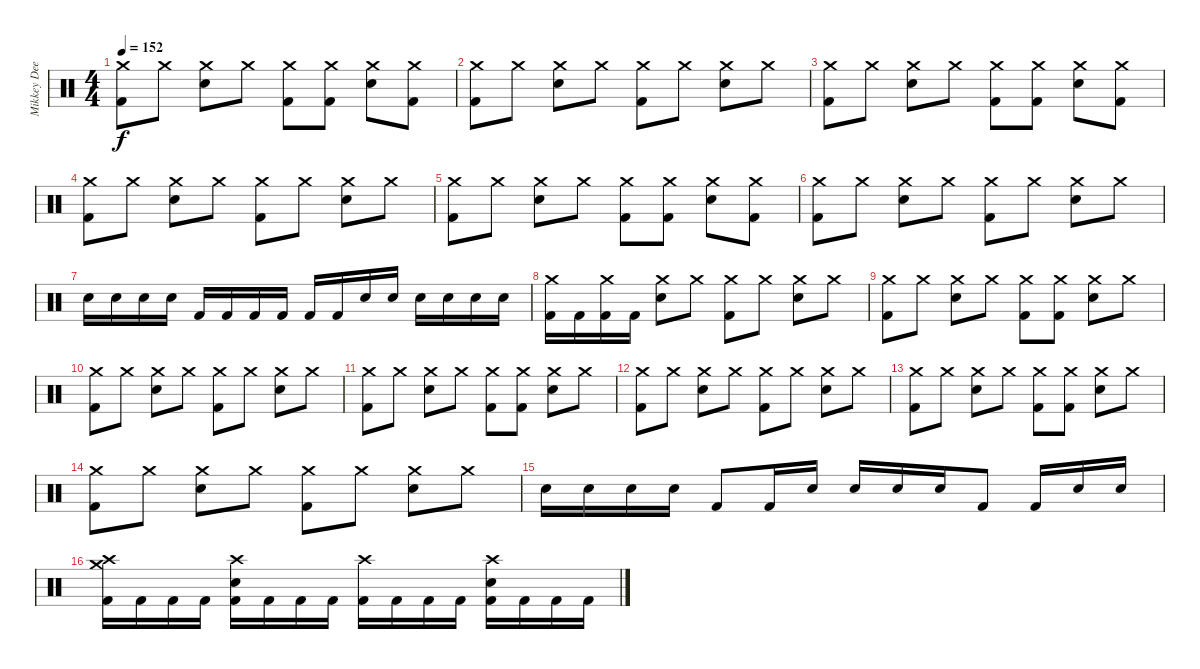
\track ("Mikkey Dee" "Mikkey Dee") {instrument percussion}
\staff {score}
\articulation defaults
\ts (4 4)
\tempo 152
\clef neutral
\ks c
("Crash medium (hit)" "Kick (hit) 2").8{dy f} "Crash medium (hit)".8 ("Crash medium (hit)" "Snare (hit) 2").8 "Crash medium (hit)".8 ("Crash medium (hit)" "Kick (hit) 2").8 ("Crash medium (hit)" "Kick (hit) 2").8 ("Crash medium (hit)" "Snare (hit) 2").8 ("Crash medium (hit)" "Kick (hit) 2").8 |
("Crash medium (hit)" "Kick (hit) 2").8 "Crash medium (hit)".8 ("Crash medium (hit)" "Snare (hit) 2").8 "Crash medium (hit)".8 ("Crash medium (hit)" "Kick (hit) 2").8 "Crash medium (hit)".8 ("Crash medium (hit)" "Snare (hit) 2").8 "Crash medium (hit)".8 |
("Crash medium (hit)" "Kick (hit) 2").8 "Crash medium (hit)".8 ("Crash medium (hit)" "Snare (hit) 2").8 "Crash medium (hit)".8 ("Crash medium (hit)" "Kick (hit) 2").8 ("Crash medium (hit)" "Kick (hit) 2").8 ("Crash medium (hit)" "Snare (hit) 2").8 ("Crash medium (hit)" "Kick (hit) 2").8 |
("Crash medium (hit)" "Kick (hit) 2").8 "Crash medium (hit)".8 ("Crash medium (hit)" "Snare (hit) 2").8 "Crash medium (hit)".8 ("Crash medium (hit)" "Kick (hit) 2").8 "Crash medium (hit)".8 ("Crash medium (hit)" "Snare (hit) 2").8 "Crash medium (hit)".8 |
("Crash medium (hit)" "Kick (hit) 2").8 "Crash medium (hit)".8 ("Crash medium (hit)" "Snare (hit) 2").8 "Crash medium (hit)".8 ("Crash medium (hit)" "Kick (hit) 2").8 ("Crash medium (hit)" "Kick (hit) 2").8 ("Crash medium (hit)" "Snare (hit) 2").8 ("Crash medium (hit)" "Kick (hit) 2").8 |
("Crash medium (hit)" "Kick (hit) 2").8 "Crash medium (hit)".8 ("Crash medium (hit)" "Snare (hit) 2").8 "Crash medium (hit)".8 ("Crash medium (hit)" "Kick (hit) 2").8 "Crash medium (hit)".8 ("Crash medium (hit)" "Snare (hit) 2").8 "Crash medium (hit)".8 |
"Snare (hit) 2".16 "Snare (hit) 2".16 "Snare (hit) 2".16 "Snare (hit) 2".16 "Kick (hit) 2".16 "Kick (hit) 2".16 "Kick (hit) 2".16 "Kick (hit) 2".16 "Kick (hit) 2".16 "Kick (hit) 2".16 "Snare (hit) 2".16 "Snare (hit) 2".16 "Snare (hit) 2".16 "Snare (hit) 2".16 "Snare (hit) 2".16 "Snare (hit) 2".16 |
("Crash medium (hit)" "Kick (hit) 2").16 "Kick (hit) 2".16 ("Crash medium (hit)" "Kick (hit) 2").16 "Kick (hit) 2".16 ("Crash medium (hit)" "Snare (hit) 2").8 "Crash medium (hit)".8 ("Crash medium (hit)" "Kick (hit) 2").8 "Crash medium (hit)".8 ("Crash medium (hit)" "Snare (hit) 2").8 "Crash medium (hit)".8 |
("Crash medium (hit)" "Kick (hit) 2").8 "Crash medium (hit)".8 ("Crash medium (hit)" "Snare (hit) 2").8 "Crash medium (hit)".8 ("Crash medium (hit)" "Kick (hit) 2").8 ("Crash medium (hit)" "Kick (hit) 2").8 ("Crash medium (hit)" "Snare (hit) 2").8 "Crash medium (hit)".8 |
("Crash medium (hit)" "Kick (hit) 2").8 "Crash medium (hit)".8 ("Crash medium (hit)" "Snare (hit) 2").8 "Crash medium (hit)".8 ("Crash medium (hit)" "Kick (hit) 2").8 "Crash medium (hit)".8 ("Crash medium (hit)" "Snare (hit) 2").8 "Crash medium (hit)".8 |
("Crash medium (hit)" "Kick (hit) 2").8 "Crash medium (hit)".8 ("Crash medium (hit)" "Snare (hit) 2").8 "Crash medium (hit)".8 ("Crash medium (hit)" "Kick (hit) 2").8 ("Crash medium (hit)" "Kick (hit) 2").8 ("Crash medium (hit)" "Snare (hit) 2").8 "Crash medium (hit)".8 |
("Crash medium (hit)" "Kick (hit) 2").8 "Crash medium (hit)".8 ("Crash medium (hit)" "Snare (hit) 2").8 "Crash medium (hit)".8 ("Crash medium (hit)" "Kick (hit) 2").8 "Crash medium (hit)".8 ("Crash medium (hit)" "Snare (hit) 2").8 "Crash medium (hit)".8 |
("Crash medium (hit)" "Kick (hit) 2").8 "Crash medium (hit)".8 ("Crash medium (hit)" "Snare (hit) 2").8 "Crash medium (hit)".8 ("Crash medium (hit)" "Kick (hit) 2").8 ("Crash medium (hit)" "Kick (hit) 2").8 ("Crash medium (hit)" "Snare (hit) 2").8 "Crash medium (hit)".8 |
("Crash medium (hit)" "Kick (hit) 2").8 "Crash medium (hit)".8 ("Crash medium (hit)" "Snare (hit) 2").8 "Crash medium (hit)".8 ("Crash medium (hit)" "Kick (hit) 2").8 "Crash medium (hit)".8 ("Crash medium (hit)" "Snare (hit) 2").8 "Crash medium (hit)".8 |
"Snare (hit) 2".16 "Snare (hit) 2".16 "Snare (hit) 2".16 "Snare (hit) 2".16 "Kick (hit) 2".8 "Kick (hit) 2".16 "Snare (hit) 2".16 "Snare (hit) 2".16 "Snare (hit) 2".16 "Snare (hit) 2".16 "Kick (hit) 2".8 "Kick (hit) 2".16 "Snare (hit) 2".16 "Snare (hit) 2".16 |
("Crash high (hit)" "Crash medium (hit)" "Kick (hit) 2").16 "Kick (hit) 2".16 "Kick (hit) 2".16 "Kick (hit) 2".16 ("Crash high (hit)" "Snare (hit) 2" "Kick (hit) 2").16 "Kick (hit) 2".16 "Kick (hit) 2".16 "Kick (hit) 2".16 ("Crash high (hit)" "Kick (hit) 2").16 "Kick (hit) 2".16 "Kick (hit) 2".16 "Kick (hit) 2".16 ("Crash high (hit)" "Snare (hit) 2" "Kick (hit) 2").16 "Kick (hit) 2".16 "Kick (hit) 2".16 "Kick (hit) 2".16
